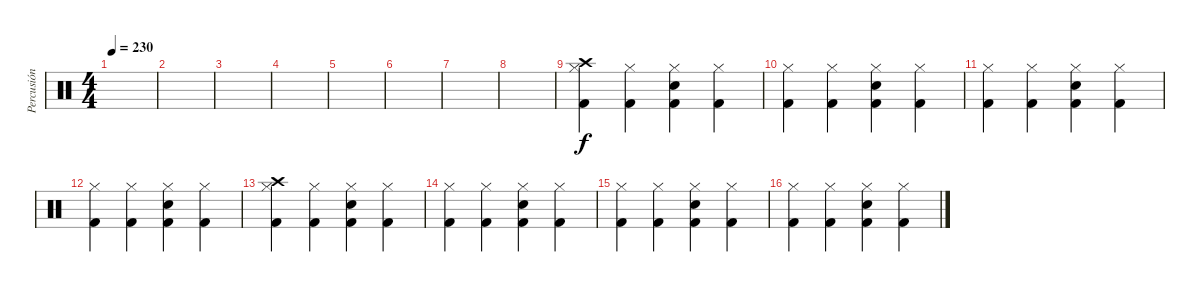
\track ("Percusión" "Percusión") {instrument percussion}
\staff {score}
\articulation defaults
\ts (4 4)
\tempo 230
\clef neutral
\ks c
|
|
|
|
|
|
|
|
("Crash high (hit)" "Hi-Hat (closed)" "Kick (hit) 2").4 ("Hi-Hat (closed)" "Kick (hit) 2").4 ("Hi-Hat (closed)" "Snare (hit) 2" "Kick (hit) 2").4 ("Hi-Hat (closed)" "Kick (hit) 2").4 |
("Hi-Hat (closed)" "Kick (hit) 2").4 ("Hi-Hat (closed)" "Kick (hit) 2").4 ("Hi-Hat (closed)" "Snare (hit) 2" "Kick (hit) 2").4 ("Hi-Hat (closed)" "Kick (hit) 2").4 |
("Hi-Hat (closed)" "Kick (hit) 2").4 ("Hi-Hat (closed)" "Kick (hit) 2").4 ("Hi-Hat (closed)" "Snare (hit) 2" "Kick (hit) 2").4 ("Hi-Hat (closed)" "Kick (hit) 2").4 |
("Hi-Hat (closed)" "Kick (hit) 2").4 ("Hi-Hat (closed)" "Kick (hit) 2").4 ("Hi-Hat (closed)" "Snare (hit) 2" "Kick (hit) 2").4 ("Hi-Hat (closed)" "Kick (hit) 2").4 |
("Crash high (hit)" "Hi-Hat (closed)" "Kick (hit) 2").4 ("Hi-Hat (closed)" "Kick (hit) 2").4 ("Hi-Hat (closed)" "Snare (hit) 2" "Kick (hit) 2").4 ("Hi-Hat (closed)" "Kick (hit) 2").4 |
("Hi-Hat (closed)" "Kick (hit) 2").4 ("Hi-Hat (closed)" "Kick (hit) 2").4 ("Hi-Hat (closed)" "Snare (hit) 2" "Kick (hit) 2").4 ("Hi-Hat (closed)" "Kick (hit) 2").4 |
("Hi-Hat (closed)" "Kick (hit) 2").4 ("Hi-Hat (closed)" "Kick (hit) 2").4 ("Hi-Hat (closed)" "Snare (hit) 2" "Kick (hit) 2").4 ("Hi-Hat (closed)" "Kick (hit) 2").4 |
("Hi-Hat (closed)" "Kick (hit) 2").4 ("Hi-Hat (closed)" "Kick (hit) 2").4 ("Hi-Hat (closed)" "Snare (hit) 2" "Kick (hit) 2").4 ("Hi-Hat (closed)" "Kick (hit) 2").4
